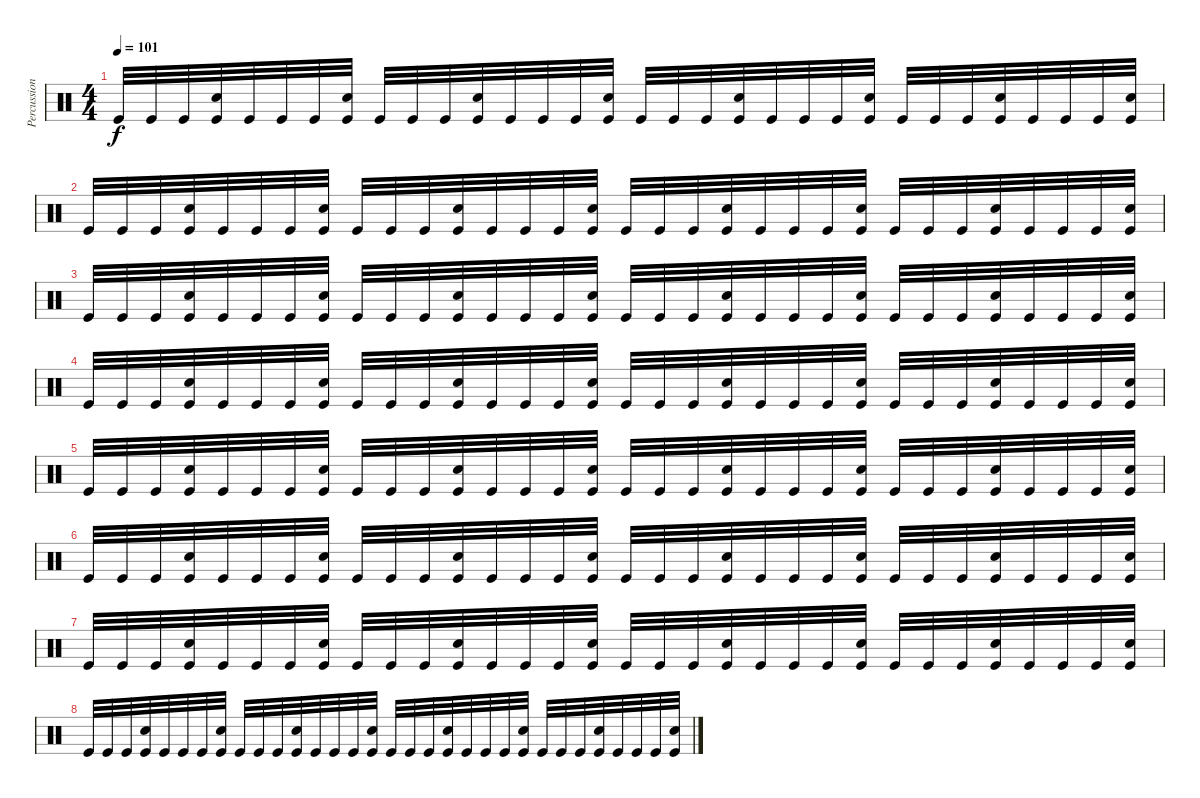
\track ("Percussion" "Percussion") {instrument percussion}
\staff {score}
\articulation defaults
\ts (4 4)
\tempo 101
\clef neutral
\ks c "Kick (hit)".32{dy f} "Kick (hit)".32 "Kick (hit)".32
("Electric Snare (hit)" "Kick (hit)").32 "Kick (hit)".32 "Kick (hit)".32 "Kick (hit)".32 ("Electric Snare (hit)" "Kick (hit)").32 "Kick (hit)".32 "Kick (hit)".32 "Kick (hit)".32 ("Electric Snare (hit)" "Kick (hit)").32 "Kick (hit)".32 "Kick (hit)".32 "Kick (hit)".32 ("Electric Snare (hit)" "Kick (hit)").32 "Kick (hit)".32 "Kick (hit)".32 "Kick (hit)".32 ("Electric Snare (hit)" "Kick (hit)").32 "Kick (hit)".32 "Kick (hit)".32 "Kick (hit)".32 ("Electric Snare (hit)" "Kick (hit)").32 "Kick (hit)".32 "Kick (hit)".32 "Kick (hit)".32 ("Electric Snare (hit)" "Kick (hit)").32 "Kick (hit)".32 "Kick (hit)".32 "Kick (hit)".32 ("Electric Snare (hit)" "Kick (hit)").32 |
"Kick (hit)".32 "Kick (hit)".32 "Kick (hit)".32 ("Electric Snare (hit)" "Kick (hit)").32 "Kick (hit)".32 "Kick (hit)".32 "Kick (hit)".32 ("Electric Snare (hit)" "Kick (hit)").32 "Kick (hit)".32 "Kick (hit)".32 "Kick (hit)".32 ("Electric Snare (hit)" "Kick (hit)").32 "Kick (hit)".32 "Kick (hit)".32 "Kick (hit)".32 ("Electric Snare (hit)" "Kick (hit)").32 "Kick (hit)".32 "Kick (hit)".32 "Kick (hit)".32 ("Electric Snare (hit)" "Kick (hit)").32 "Kick (hit)".32 "Kick (hit)".32 "Kick (hit)".32 ("Electric Snare (hit)" "Kick (hit)").32 "Kick (hit)".32 "Kick (hit)".32 "Kick (hit)".32 ("Electric Snare (hit)" "Kick (hit)").32 "Kick (hit)".32 "Kick (hit)".32 "Kick (hit)".32 ("Electric Snare (hit)" "Kick (hit)").32 |
"Kick (hit)".32 "Kick (hit)".32 "Kick (hit)".32 ("Electric Snare (hit)" "Kick (hit)").32 "Kick (hit)".32 "Kick (hit)".32 "Kick (hit)".32 ("Electric Snare (hit)" "Kick (hit)").32 "Kick (hit)".32 "Kick (hit)".32 "Kick (hit)".32 ("Electric Snare (hit)" "Kick (hit)").32 "Kick (hit)".32 "Kick (hit)".32 "Kick (hit)".32 ("Electric Snare (hit)" "Kick (hit)").32 "Kick (hit)".32 "Kick (hit)".32 "Kick (hit)".32 ("Electric Snare (hit)" "Kick (hit)").32 "Kick (hit)".32 "Kick (hit)".32 "Kick (hit)".32 ("Electric Snare (hit)" "Kick (hit)").32 "Kick (hit)".32 "Kick (hit)".32 "Kick (hit)".32 ("Electric Snare (hit)" "Kick (hit)").32 "Kick (hit)".32 "Kick (hit)".32 "Kick (hit)".32 ("Electric Snare (hit)" "Kick (hit)").32 |
"Kick (hit)".32 "Kick (hit)".32 "Kick (hit)".32 ("Electric Snare (hit)" "Kick (hit)").32 "Kick (hit)".32 "Kick (hit)".32 "Kick (hit)".32 ("Electric Snare (hit)" "Kick (hit)").32 "Kick (hit)".32 "Kick (hit)".32 "Kick (hit)".32 ("Electric Snare (hit)" "Kick (hit)").32 "Kick (hit)".32 "Kick (hit)".32 "Kick (hit)".32 ("Electric Snare (hit)" "Kick (hit)").32 "Kick (hit)".32 "Kick (hit)".32 "Kick (hit)".32 ("Electric Snare (hit)" "Kick (hit)").32 "Kick (hit)".32 "Kick (hit)".32 "Kick (hit)".32 ("Electric Snare (hit)" "Kick (hit)").32 "Kick (hit)".32 "Kick (hit)".32 "Kick (hit)".32 ("Electric Snare (hit)" "Kick (hit)").32 "Kick (hit)".32 "Kick (hit)".32 "Kick (hit)".32 ("Electric Snare (hit)" "Kick (hit)").32 |
"Kick (hit)".32 "Kick (hit)".32 "Kick (hit)".32 ("Electric Snare (hit)" "Kick (hit)").32 "Kick (hit)".32 "Kick (hit)".32 "Kick (hit)".32 ("Electric Snare (hit)" "Kick (hit)").32 "Kick (hit)".32 "Kick (hit)".32 "Kick (hit)".32 ("Electric Snare (hit)" "Kick (hit)").32 "Kick (hit)".32 "Kick (hit)".32 "Kick (hit)".32 ("Electric Snare (hit)" "Kick (hit)").32 "Kick (hit)".32 "Kick (hit)".32 "Kick (hit)".32 ("Electric Snare (hit)" "Kick (hit)").32 "Kick (hit)".32 "Kick (hit)".32 "Kick (hit)".32 ("Electric Snare (hit)" "Kick (hit)").32 "Kick (hit)".32 "Kick (hit)".32 "Kick (hit)".32 ("Electric Snare (hit)" "Kick (hit)").32 "Kick (hit)".32 "Kick (hit)".32 "Kick (hit)".32 ("Electric Snare (hit)" "Kick (hit)").32 |
"Kick (hit)".32 "Kick (hit)".32 "Kick (hit)".32 ("Electric Snare (hit)" "Kick (hit)").32 "Kick (hit)".32 "Kick (hit)".32 "Kick (hit)".32 ("Electric Snare (hit)" "Kick (hit)").32 "Kick (hit)".32 "Kick (hit)".32 "Kick (hit)".32 ("Electric Snare (hit)" "Kick (hit)").32 "Kick (hit)".32 "Kick (hit)".32 "Kick (hit)".32 ("Electric Snare (hit)" "Kick (hit)").32 "Kick (hit)".32 "Kick (hit)".32 "Kick (hit)".32 ("Electric Snare (hit)" "Kick (hit)").32 "Kick (hit)".32 "Kick (hit)".32 "Kick (hit)".32 ("Electric Snare (hit)" "Kick (hit)").32 "Kick (hit)".32 "Kick (hit)".32 "Kick (hit)".32 ("Electric Snare (hit)" "Kick (hit)").32 "Kick (hit)".32 "Kick (hit)".32 "Kick (hit)".32 ("Electric Snare (hit)" "Kick (hit)").32 |
"Kick (hit)".32 "Kick (hit)".32 "Kick (hit)".32 ("Electric Snare (hit)" "Kick (hit)").32 "Kick (hit)".32 "Kick (hit)".32 "Kick (hit)".32 ("Electric Snare (hit)" "Kick (hit)").32 "Kick (hit)".32 "Kick (hit)".32 "Kick (hit)".32 ("Electric Snare (hit)" "Kick (hit)").32 "Kick (hit)".32 "Kick (hit)".32 "Kick (hit)".32 ("Electric Snare (hit)" "Kick (hit)").32 "Kick (hit)".32 "Kick (hit)".32 "Kick (hit)".32 ("Electric Snare (hit)" "Kick (hit)").32 "Kick (hit)".32 "Kick (hit)".32 "Kick (hit)".32 ("Electric Snare (hit)" "Kick (hit)").32 "Kick (hit)".32 "Kick (hit)".32 "Kick (hit)".32 ("Electric Snare (hit)" "Kick (hit)").32 "Kick (hit)".32 "Kick (hit)".32 "Kick (hit)".32 ("Electric Snare (hit)" "Kick (hit)").32 |
"Kick (hit)".32 "Kick (hit)".32 "Kick (hit)".32 ("Electric Snare (hit)" "Kick (hit)").32 "Kick (hit)".32 "Kick (hit)".32 "Kick (hit)".32 ("Electric Snare (hit)" "Kick (hit)").32 "Kick (hit)".32 "Kick (hit)".32 "Kick (hit)".32 ("Electric Snare (hit)" "Kick (hit)").32 "Kick (hit)".32 "Kick (hit)".32 "Kick (hit)".32 ("Electric Snare (hit)" "Kick (hit)").32 "Kick (hit)".32 "Kick (hit)".32 "Kick (hit)".32 ("Electric Snare (hit)" "Kick (hit)").32 "Kick (hit)".32 "Kick (hit)".32 "Kick (hit)".32 ("Electric Snare (hit)" "Kick (hit)").32 "Kick (hit)".32 "Kick (hit)".32 "Kick (hit)".32 ("Electric Snare (hit)" "Kick (hit)").32 "Kick (hit)".32 "Kick (hit)".32 "Kick (hit)".32 ("Electric Snare (hit)" "Kick (hit)").32
